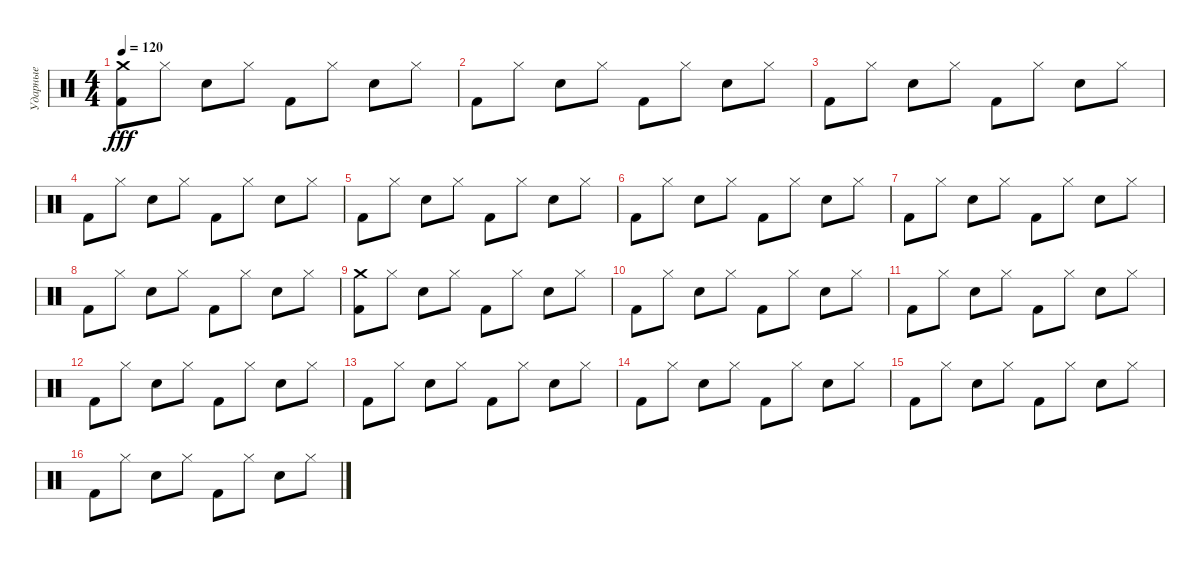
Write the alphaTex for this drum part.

\track ("Ударные" "Ударные") {instrument percussion}
\staff {score}
\articulation defaults
\ts (4 4)
\tempo 120
\clef neutral
\ks c
("Crash medium (hit)" "Kick (hit) 2").8{dy fff} "Hi-Hat (closed)".8 "Electric Snare (hit)".8 "Hi-Hat (closed)".8 "Kick (hit) 2".8 "Hi-Hat (closed)".8 "Electric Snare (hit)".8 "Hi-Hat (closed)".8 |
"Kick (hit) 2".8 "Hi-Hat (closed)".8 "Electric Snare (hit)".8 "Hi-Hat (closed)".8 "Kick (hit) 2".8 "Hi-Hat (closed)".8 "Electric Snare (hit)".8 "Hi-Hat (closed)".8 |
"Kick (hit) 2".8 "Hi-Hat (closed)".8 "Electric Snare (hit)".8 "Hi-Hat (closed)".8 "Kick (hit) 2".8 "Hi-Hat (closed)".8 "Electric Snare (hit)".8 "Hi-Hat (closed)".8 |
"Kick (hit) 2".8 "Hi-Hat (closed)".8 "Electric Snare (hit)".8 "Hi-Hat (closed)".8 "Kick (hit) 2".8 "Hi-Hat (closed)".8 "Electric Snare (hit)".8 "Hi-Hat (closed)".8 |
"Kick (hit) 2".8 "Hi-Hat (closed)".8 "Electric Snare (hit)".8 "Hi-Hat (closed)".8 "Kick (hit) 2".8 "Hi-Hat (closed)".8 "Electric Snare (hit)".8 "Hi-Hat (closed)".8 |
"Kick (hit) 2".8 "Hi-Hat (closed)".8 "Electric Snare (hit)".8 "Hi-Hat (closed)".8 "Kick (hit) 2".8 "Hi-Hat (closed)".8 "Electric Snare (hit)".8 "Hi-Hat (closed)".8 |
"Kick (hit) 2".8 "Hi-Hat (closed)".8 "Electric Snare (hit)".8 "Hi-Hat (closed)".8 "Kick (hit) 2".8 "Hi-Hat (closed)".8 "Electric Snare (hit)".8 "Hi-Hat (closed)".8 |
"Kick (hit) 2".8 "Hi-Hat (closed)".8 "Electric Snare (hit)".8 "Hi-Hat (closed)".8 "Kick (hit) 2".8 "Hi-Hat (closed)".8 "Electric Snare (hit)".8 "Hi-Hat (closed)".8 |
("Crash medium (hit)" "Kick (hit) 2").8 "Hi-Hat (closed)".8 "Electric Snare (hit)".8 "Hi-Hat (closed)".8 "Kick (hit) 2".8 "Hi-Hat (closed)".8 "Electric Snare (hit)".8 "Hi-Hat (closed)".8 |
"Kick (hit) 2".8 "Hi-Hat (closed)".8 "Electric Snare (hit)".8 "Hi-Hat (closed)".8 "Kick (hit) 2".8 "Hi-Hat (closed)".8 "Electric Snare (hit)".8 "Hi-Hat (closed)".8 |
"Kick (hit) 2".8 "Hi-Hat (closed)".8 "Electric Snare (hit)".8 "Hi-Hat (closed)".8 "Kick (hit) 2".8 "Hi-Hat (closed)".8 "Electric Snare (hit)".8 "Hi-Hat (closed)".8 |
"Kick (hit) 2".8 "Hi-Hat (closed)".8 "Electric Snare (hit)".8 "Hi-Hat (closed)".8 "Kick (hit) 2".8 "Hi-Hat (closed)".8 "Electric Snare (hit)".8 "Hi-Hat (closed)".8 |
"Kick (hit) 2".8 "Hi-Hat (closed)".8 "Electric Snare (hit)".8 "Hi-Hat (closed)".8 "Kick (hit) 2".8 "Hi-Hat (closed)".8 "Electric Snare (hit)".8 "Hi-Hat (closed)".8 |
"Kick (hit) 2".8 "Hi-Hat (closed)".8 "Electric Snare (hit)".8 "Hi-Hat (closed)".8 "Kick (hit) 2".8 "Hi-Hat (closed)".8 "Electric Snare (hit)".8 "Hi-Hat (closed)".8 |
"Kick (hit) 2".8 "Hi-Hat (closed)".8 "Electric Snare (hit)".8 "Hi-Hat (closed)".8 "Kick (hit) 2".8 "Hi-Hat (closed)".8 "Electric Snare (hit)".8 "Hi-Hat (closed)".8 |
"Kick (hit) 2".8 "Hi-Hat (closed)".8 "Electric Snare (hit)".8 "Hi-Hat (closed)".8 "Kick (hit) 2".8 "Hi-Hat (closed)".8 "Electric Snare (hit)".8 "Hi-Hat (closed)".8
